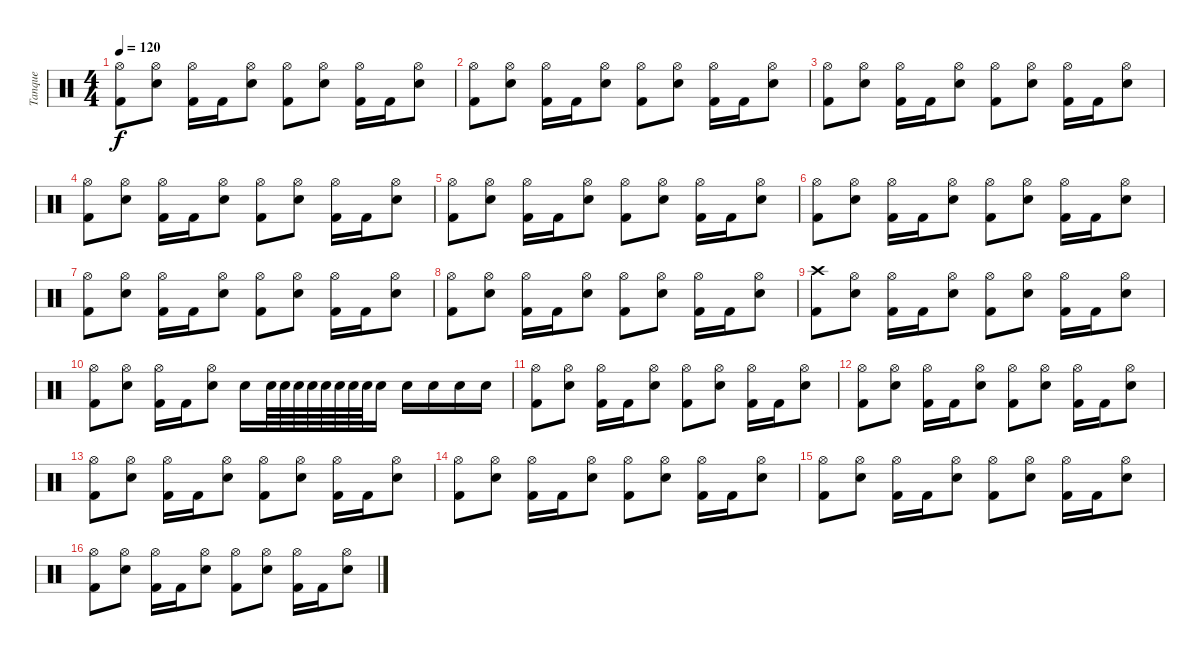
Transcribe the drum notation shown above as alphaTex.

\track ("Tanque" "Tanque") {instrument percussion}
\staff {score}
\articulation defaults
\ts (4 4)
\tempo 120
\clef neutral
\ks c
("Kick (hit) 2" "Hi-Hat (open)").8{dy f} ("Snare (hit) 2" "Hi-Hat (open)").8 ("Kick (hit) 2" "Hi-Hat (open)").16 "Kick (hit) 2".16 ("Snare (hit) 2" "Hi-Hat (open)").8 ("Kick (hit) 2" "Hi-Hat (open)").8 ("Snare (hit) 2" "Hi-Hat (open)").8 ("Kick (hit) 2" "Hi-Hat (open)").16 "Kick (hit) 2".16 ("Snare (hit) 2" "Hi-Hat (open)").8 |
("Kick (hit) 2" "Hi-Hat (open)").8 ("Snare (hit) 2" "Hi-Hat (open)").8 ("Kick (hit) 2" "Hi-Hat (open)").16 "Kick (hit) 2".16 ("Snare (hit) 2" "Hi-Hat (open)").8 ("Kick (hit) 2" "Hi-Hat (open)").8 ("Snare (hit) 2" "Hi-Hat (open)").8 ("Kick (hit) 2" "Hi-Hat (open)").16 "Kick (hit) 2".16 ("Snare (hit) 2" "Hi-Hat (open)").8 |
("Kick (hit) 2" "Hi-Hat (open)").8 ("Snare (hit) 2" "Hi-Hat (open)").8 ("Kick (hit) 2" "Hi-Hat (open)").16 "Kick (hit) 2".16 ("Snare (hit) 2" "Hi-Hat (open)").8 ("Kick (hit) 2" "Hi-Hat (open)").8 ("Snare (hit) 2" "Hi-Hat (open)").8 ("Kick (hit) 2" "Hi-Hat (open)").16 "Kick (hit) 2".16 ("Snare (hit) 2" "Hi-Hat (open)").8 |
("Kick (hit) 2" "Hi-Hat (open)").8 ("Snare (hit) 2" "Hi-Hat (open)").8 ("Kick (hit) 2" "Hi-Hat (open)").16 "Kick (hit) 2".16 ("Snare (hit) 2" "Hi-Hat (open)").8 ("Kick (hit) 2" "Hi-Hat (open)").8 ("Snare (hit) 2" "Hi-Hat (open)").8 ("Kick (hit) 2" "Hi-Hat (open)").16 "Kick (hit) 2".16 ("Snare (hit) 2" "Hi-Hat (open)").8 |
("Kick (hit) 2" "Hi-Hat (open)").8 ("Snare (hit) 2" "Hi-Hat (open)").8 ("Kick (hit) 2" "Hi-Hat (open)").16 "Kick (hit) 2".16 ("Snare (hit) 2" "Hi-Hat (open)").8 ("Kick (hit) 2" "Hi-Hat (open)").8 ("Snare (hit) 2" "Hi-Hat (open)").8 ("Kick (hit) 2" "Hi-Hat (open)").16 "Kick (hit) 2".16 ("Snare (hit) 2" "Hi-Hat (open)").8 |
("Kick (hit) 2" "Hi-Hat (open)").8 ("Snare (hit) 2" "Hi-Hat (open)").8 ("Kick (hit) 2" "Hi-Hat (open)").16 "Kick (hit) 2".16 ("Snare (hit) 2" "Hi-Hat (open)").8 ("Kick (hit) 2" "Hi-Hat (open)").8 ("Snare (hit) 2" "Hi-Hat (open)").8 ("Kick (hit) 2" "Hi-Hat (open)").16 "Kick (hit) 2".16 ("Snare (hit) 2" "Hi-Hat (open)").8 |
("Kick (hit) 2" "Hi-Hat (open)").8 ("Snare (hit) 2" "Hi-Hat (open)").8 ("Kick (hit) 2" "Hi-Hat (open)").16 "Kick (hit) 2".16 ("Snare (hit) 2" "Hi-Hat (open)").8 ("Kick (hit) 2" "Hi-Hat (open)").8 ("Snare (hit) 2" "Hi-Hat (open)").8 ("Kick (hit) 2" "Hi-Hat (open)").16 "Kick (hit) 2".16 ("Snare (hit) 2" "Hi-Hat (open)").8 |
("Kick (hit) 2" "Hi-Hat (open)").8 ("Snare (hit) 2" "Hi-Hat (open)").8 ("Kick (hit) 2" "Hi-Hat (open)").16 "Kick (hit) 2".16 ("Snare (hit) 2" "Hi-Hat (open)").8 ("Kick (hit) 2" "Hi-Hat (open)").8 ("Snare (hit) 2" "Hi-Hat (open)").8 ("Kick (hit) 2" "Hi-Hat (open)").16 "Kick (hit) 2".16 ("Snare (hit) 2" "Hi-Hat (open)").8 |
("Kick (hit) 2" "Crash high (hit)").8 ("Snare (hit) 2" "Hi-Hat (open)").8 ("Kick (hit) 2" "Hi-Hat (open)").16 "Kick (hit) 2".16 ("Snare (hit) 2" "Hi-Hat (open)").8 ("Kick (hit) 2" "Hi-Hat (open)").8 ("Snare (hit) 2" "Hi-Hat (open)").8 ("Kick (hit) 2" "Hi-Hat (open)").16 "Kick (hit) 2".16 ("Snare (hit) 2" "Hi-Hat (open)").8 |
("Kick (hit) 2" "Hi-Hat (open)").8 ("Snare (hit) 2" "Hi-Hat (open)").8 ("Kick (hit) 2" "Hi-Hat (open)").16 "Kick (hit) 2".16 ("Snare (hit) 2" "Hi-Hat (open)").8 "Snare (hit) 2".16 "Snare (hit) 2".64 "Snare (hit) 2".64 "Snare (hit) 2".64 "Snare (hit) 2".64 "Snare (hit) 2".64 "Snare (hit) 2".64 "Snare (hit) 2".64 "Snare (hit) 2".64 "Snare (hit) 2".16 "Snare (hit) 2".16 "Snare (hit) 2".16 "Snare (hit) 2".16 "Snare (hit) 2".16 |
("Kick (hit) 2" "Hi-Hat (open)").8 ("Snare (hit) 2" "Hi-Hat (open)").8 ("Kick (hit) 2" "Hi-Hat (open)").16 "Kick (hit) 2".16 ("Snare (hit) 2" "Hi-Hat (open)").8 ("Kick (hit) 2" "Hi-Hat (open)").8 ("Snare (hit) 2" "Hi-Hat (open)").8 ("Kick (hit) 2" "Hi-Hat (open)").16 "Kick (hit) 2".16 ("Snare (hit) 2" "Hi-Hat (open)").8 |
("Kick (hit) 2" "Hi-Hat (open)").8 ("Snare (hit) 2" "Hi-Hat (open)").8 ("Kick (hit) 2" "Hi-Hat (open)").16 "Kick (hit) 2".16 ("Snare (hit) 2" "Hi-Hat (open)").8 ("Kick (hit) 2" "Hi-Hat (open)").8 ("Snare (hit) 2" "Hi-Hat (open)").8 ("Kick (hit) 2" "Hi-Hat (open)").16 "Kick (hit) 2".16 ("Snare (hit) 2" "Hi-Hat (open)").8 |
("Kick (hit) 2" "Hi-Hat (open)").8 ("Snare (hit) 2" "Hi-Hat (open)").8 ("Kick (hit) 2" "Hi-Hat (open)").16 "Kick (hit) 2".16 ("Snare (hit) 2" "Hi-Hat (open)").8 ("Kick (hit) 2" "Hi-Hat (open)").8 ("Snare (hit) 2" "Hi-Hat (open)").8 ("Kick (hit) 2" "Hi-Hat (open)").16 "Kick (hit) 2".16 ("Snare (hit) 2" "Hi-Hat (open)").8 |
("Kick (hit) 2" "Hi-Hat (open)").8 ("Snare (hit) 2" "Hi-Hat (open)").8 ("Kick (hit) 2" "Hi-Hat (open)").16 "Kick (hit) 2".16 ("Snare (hit) 2" "Hi-Hat (open)").8 ("Kick (hit) 2" "Hi-Hat (open)").8 ("Snare (hit) 2" "Hi-Hat (open)").8 ("Kick (hit) 2" "Hi-Hat (open)").16 "Kick (hit) 2".16 ("Snare (hit) 2" "Hi-Hat (open)").8 |
("Kick (hit) 2" "Hi-Hat (open)").8 ("Snare (hit) 2" "Hi-Hat (open)").8 ("Kick (hit) 2" "Hi-Hat (open)").16 "Kick (hit) 2".16 ("Snare (hit) 2" "Hi-Hat (open)").8 ("Kick (hit) 2" "Hi-Hat (open)").8 ("Snare (hit) 2" "Hi-Hat (open)").8 ("Kick (hit) 2" "Hi-Hat (open)").16 "Kick (hit) 2".16 ("Snare (hit) 2" "Hi-Hat (open)").8 |
("Kick (hit) 2" "Hi-Hat (open)").8 ("Snare (hit) 2" "Hi-Hat (open)").8 ("Kick (hit) 2" "Hi-Hat (open)").16 "Kick (hit) 2".16 ("Snare (hit) 2" "Hi-Hat (open)").8 ("Kick (hit) 2" "Hi-Hat (open)").8 ("Snare (hit) 2" "Hi-Hat (open)").8 ("Kick (hit) 2" "Hi-Hat (open)").16 "Kick (hit) 2".16 ("Snare (hit) 2" "Hi-Hat (open)").8
